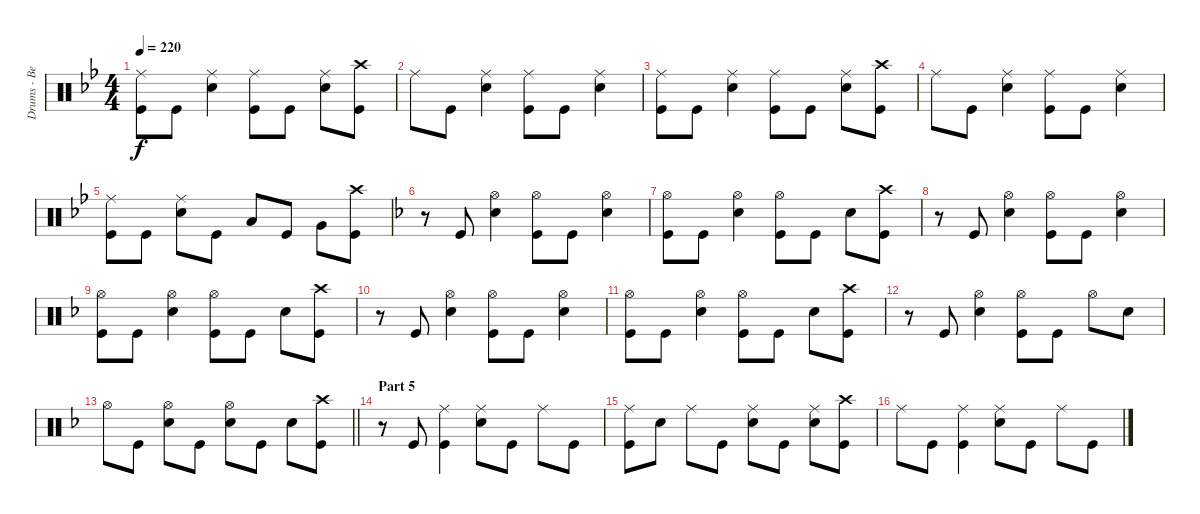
\track ("Drums - Ben Johnston" "Drums - Be") {instrument percussion}
\staff {score}
\articulation defaults
\ts (4 4)
\tempo 220
\clef neutral
\ks gminor
("Ride (middle)" "Kick (hit)").8{dy f} "Kick (hit)".8 ("Ride (middle)" "Snare (hit) 2").4 ("Ride (middle)" "Kick (hit)").8 "Kick (hit)".8 ("Ride (middle)" "Snare (hit) 2").8 ("Crash high (hit)" "Kick (hit)").8 |
"Ride (middle)".8 "Kick (hit)".8 ("Ride (middle)" "Snare (hit) 2").4 ("Ride (middle)" "Kick (hit)").8 "Kick (hit)".8 ("Ride (middle)" "Snare (hit) 2").4 |
("Ride (middle)" "Kick (hit)").8 "Kick (hit)".8 ("Ride (middle)" "Snare (hit) 2").4 ("Ride (middle)" "Kick (hit)").8 "Kick (hit)".8 ("Ride (middle)" "Snare (hit) 2").8 ("Crash high (hit)" "Kick (hit)").8 |
"Ride (middle)".8 "Kick (hit)".8 ("Ride (middle)" "Snare (hit) 2").4 ("Ride (middle)" "Kick (hit)").8 "Kick (hit)".8 ("Ride (middle)" "Snare (hit) 2").4 |
("Ride (middle)" "Kick (hit)").8 "Kick (hit)".8 ("Ride (middle)" "Snare (hit) 2").8 "Kick (hit)".8 "Low Tom (hit)".8 "Kick (hit)".8 "Very Low Tom (hit)".8 ("Crash high (hit)" "Kick (hit)").8 |
\ks dminor
r.8 "Kick (hit)".8 ("Hi-Hat (open)" "Snare (hit) 2").4 ("Hi-Hat (open)" "Kick (hit)").8 "Kick (hit)".8 ("Hi-Hat (open)" "Snare (hit) 2").4 |
("Hi-Hat (open)" "Kick (hit)").8 "Kick (hit)".8 ("Hi-Hat (open)" "Snare (hit) 2").4 ("Hi-Hat (open)" "Kick (hit)").8 "Kick (hit)".8 "Snare (hit) 2".8 ("Crash high (hit)" "Kick (hit)").8 |
r.8 "Kick (hit)".8 ("Hi-Hat (open)" "Snare (hit) 2").4 ("Hi-Hat (open)" "Kick (hit)").8 "Kick (hit)".8 ("Hi-Hat (open)" "Snare (hit) 2").4 |
("Hi-Hat (open)" "Kick (hit)").8 "Kick (hit)".8 ("Hi-Hat (open)" "Snare (hit) 2").4 ("Hi-Hat (open)" "Kick (hit)").8 "Kick (hit)".8 "Snare (hit) 2".8 ("Crash high (hit)" "Kick (hit)").8 |
r.8 "Kick (hit)".8 ("Hi-Hat (open)" "Snare (hit) 2").4 ("Hi-Hat (open)" "Kick (hit)").8 "Kick (hit)".8 ("Hi-Hat (open)" "Snare (hit) 2").4 |
("Hi-Hat (open)" "Kick (hit)").8 "Kick (hit)".8 ("Hi-Hat (open)" "Snare (hit) 2").4 ("Hi-Hat (open)" "Kick (hit)").8 "Kick (hit)".8 "Snare (hit) 2".8 ("Crash high (hit)" "Kick (hit)").8 |
r.8 "Kick (hit)".8 ("Hi-Hat (open)" "Snare (hit) 2").4 ("Hi-Hat (open)" "Kick (hit)").8 "Kick (hit)".8 "Hi-Hat (open)".8 "Snare (hit) 2".8 |
\barLineRight lightlight "Hi-Hat (open)".8 "Kick (hit)".8
("Hi-Hat (open)" "Snare (hit) 2").8 "Kick (hit)".8 ("Hi-Hat (open)" "Snare (hit) 2").8 "Kick (hit)".8 "Snare (hit) 2".8 ("Crash high (hit)" "Kick (hit)").8 |
\section ("" "Part 5")
r.8 "Kick (hit)".8 ("Ride (middle)" "Kick (hit)").4 ("Ride (middle)" "Snare (hit) 2").8 "Kick (hit)".8 "Ride (middle)".8 "Kick (hit)".8 |
("Ride (middle)" "Kick (hit)").8 "Snare (hit) 2".8 "Ride (middle)".8 "Kick (hit)".8 ("Ride (middle)" "Snare (hit) 2").8 "Kick (hit)".8 ("Ride (middle)" "Snare (hit) 2").8 ("Crash high (hit)" "Kick (hit)").8 |
"Ride (middle)".8 "Kick (hit)".8 ("Ride (middle)" "Kick (hit)").4 ("Ride (middle)" "Snare (hit) 2").8 "Kick (hit)".8 "Ride (middle)".8 "Kick (hit)".8
